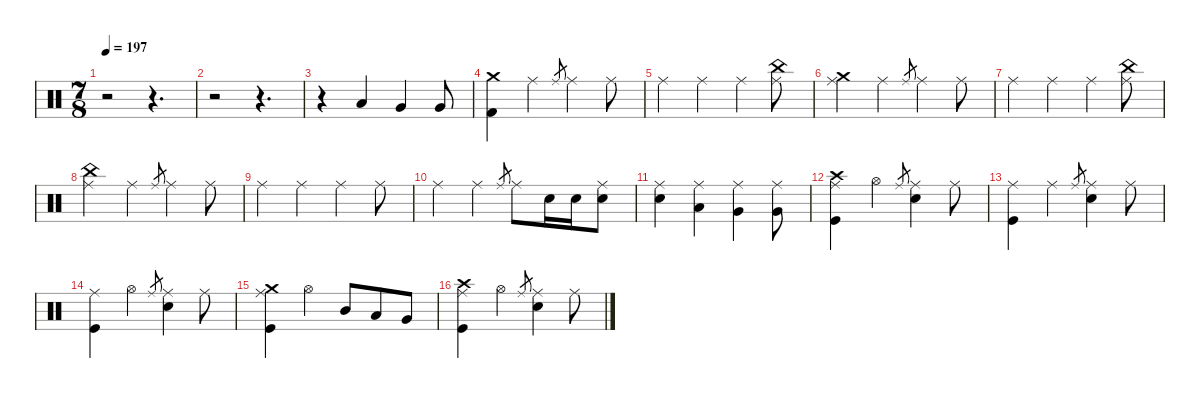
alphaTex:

\defaultSystemsLayout 4
\hideDynamics
\bracketExtendMode nobrackets
\singleTrackTrackNamePolicy hidden
\multiTrackTrackNamePolicy hidden
\firstSystemTrackNameMode fullname
\firstSystemTrackNameOrientation horizontal
\otherSystemsTrackNameOrientation horizontal
\track ("Drums" "drm.") {defaultSystemsLayout 4 instrument percussion}
\staff {score}
\articulation defaults
\ts (7 8)
\tempo 197
\clef neutral
\ks c
r.2{dy f beam Down} r.4{d beam Down} |
r.2{beam Down} r.4{d beam Down} |
r.4{beam Down} "Low Tom (hit)".4{beam Up} "Very Low Tom (hit)".4{beam Up} "Very Low Tom (hit)".8{beam Up} |
("Crash medium (hit)" "Kick (hit) 2").4{beam Down} "Ride (middle)".4{beam Down} "Ride (middle)".8{gr dy mf beam Up} "Ride (middle)".4{dy f beam Down} "Ride (middle)".8{beam Down} |
"Ride (middle)".4{beam Down} "Ride (middle)".4{beam Down} "Ride (middle)".4{beam Down} ("China (hit)" "Ride (middle)").8{dy mp beam Down} |
("Crash medium (hit)" "Ride (middle)").4{beam Down} "Ride (middle)".4{dy f beam Down} "Ride (middle)".8{gr dy mf beam Up} "Ride (middle)".4{dy f beam Down} "Ride (middle)".8{beam Down} |
"Ride (middle)".4{beam Down} "Ride (middle)".4{beam Down} "Ride (middle)".4{beam Down} ("China (hit)" "Ride (middle)").8{dy p beam Down} |
("China (hit)" "Ride (middle)").4{dy mp beam Down} "Ride (middle)".4{dy f beam Down} "Ride (middle)".8{gr dy mf beam Up} "Ride (middle)".4{dy f beam Down} "Ride (middle)".8{beam Down} |
"Ride (middle)".4{beam Down} "Ride (middle)".4{beam Down} "Ride (middle)".4{beam Down} "Ride (middle)".8{beam Down} |
"Ride (middle)".4{beam Down} "Ride (middle)".4{beam Down} "Ride (middle)".8{gr dy mf beam Up} "Ride (middle)".8{dy f beam Down} "Snare (hit) 2".16{dy mp beam Down} "Snare (hit) 2".16{beam Down} ("Ride (middle)" "Snare (hit) 2").8{dy f beam Down} |
("Ride (middle)" "Snare (hit) 2").4{beam Down} ("Ride (middle)" "Low Tom (hit)").4{beam Down} ("Ride (middle)" "Very Low Tom (hit)").4{beam Down} ("Ride (middle)" "Very Low Tom (hit)").8{beam Down} |
("Crash high (hit)" "Ride (middle)" "Kick (hit)").4{dy mf beam Down} "Hi-Hat (open)".4{dy f beam Down} "Ride (middle)".8{gr dy mf beam Up} ("Ride (middle)" "Snare (hit) 2").4{dy f beam Down} "Ride (middle)".8{beam Down} |
("Ride (middle)" "Kick (hit)").4{beam Down} "Ride (middle)".4{beam Down} "Ride (middle)".8{gr dy mf beam Up} ("Ride (middle)" "Snare (hit) 2").4{dy f beam Down} "Ride (middle)".8{beam Down} |
("Ride (middle)" "Kick (hit)").4{beam Down} "Hi-Hat (open)".4{beam Down} "Ride (middle)".8{gr dy mf beam Up} ("Ride (middle)" "Snare (hit) 2").4{dy f beam Down} "Ride (middle)".8{beam Down} |
("Crash medium (hit)" "Ride (middle)" "Kick (hit)").4{dy mp beam Down} "Hi-Hat (open)".4{dy f beam Down} "Mid Tom (hit)".8{beam Up} "Low Tom (hit)".8{beam Up} "Very Low Tom (hit)".8{beam Up} |
("Crash high (hit)" "Ride (middle)" "Kick (hit)").4{dy mf beam Down} "Hi-Hat (open)".4{dy f beam Down} "Ride (middle)".8{gr dy mf beam Up} ("Ride (middle)" "Snare (hit) 2").4{dy f beam Down} "Ride (middle)".8{beam Down}
